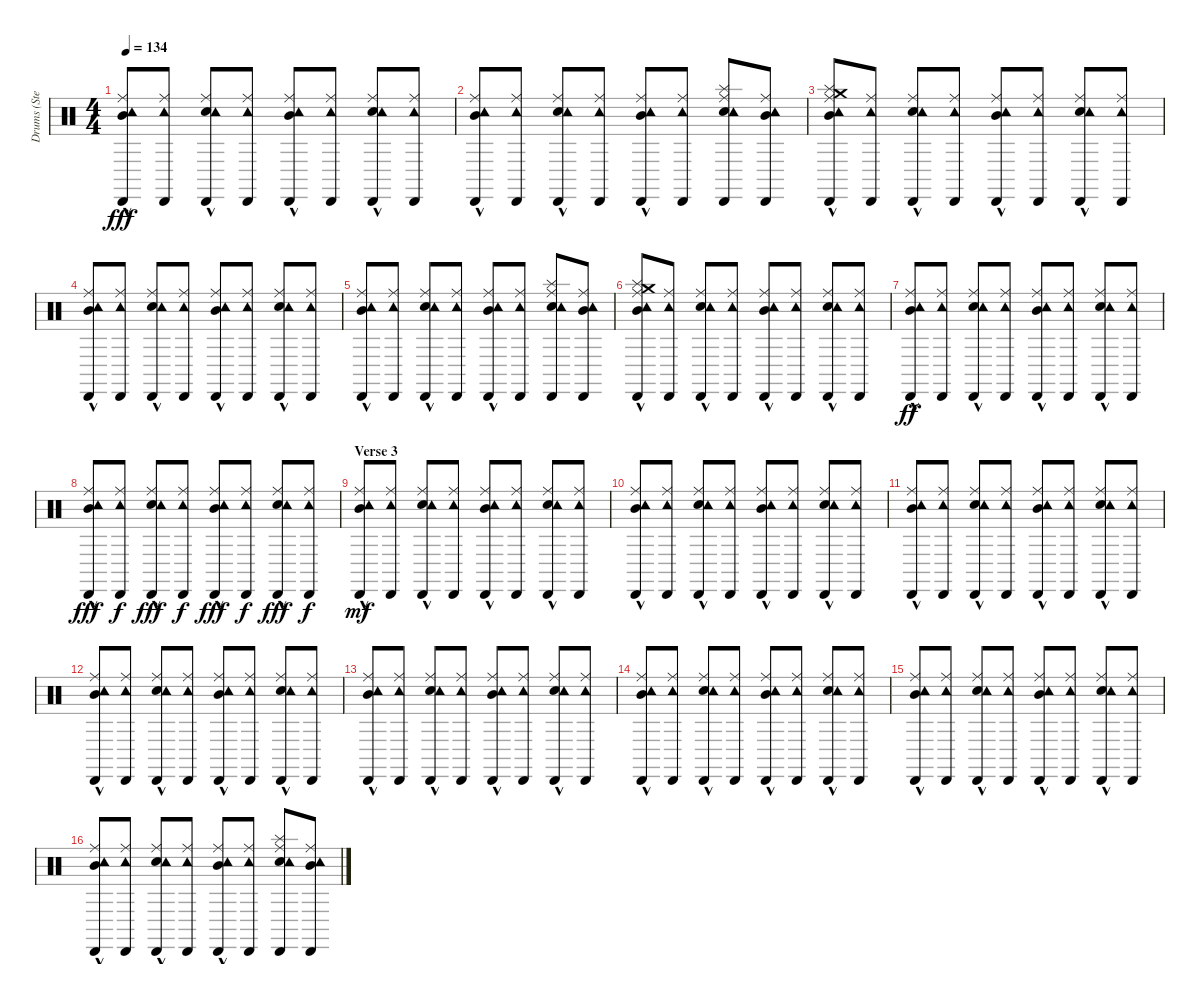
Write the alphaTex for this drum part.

\track ("Drums (Steven)" "Drums (Ste") {instrument percussion}
\staff {score}
\articulation defaults
\ts (4 4)
\tempo 134
\clef neutral
\ks c
("Mid Tom (hit)"{hac} "Ride (middle)" "Tambourine (hit)" "Cabasa (hit)").8{dy fff} ("Ride (middle)" "Tambourine (hit)" "Cabasa (hit)").8 ("Electric Snare (hit)"{hac} "Ride (middle)" "Tambourine (hit)" "Cabasa (hit)").8 ("Ride (middle)" "Tambourine (hit)" "Cabasa (hit)").8 ("Mid Tom (hit)"{hac} "Ride (middle)" "Tambourine (hit)" "Cabasa (hit)").8 ("Ride (middle)" "Tambourine (hit)" "Cabasa (hit)").8 ("Electric Snare (hit)"{hac} "Ride (middle)" "Tambourine (hit)" "Cabasa (hit)").8 ("Ride (middle)" "Tambourine (hit)" "Cabasa (hit)").8 |
("Mid Tom (hit)"{hac} "Ride (middle)" "Tambourine (hit)" "Cabasa (hit)").8 ("Ride (middle)" "Tambourine (hit)" "Cabasa (hit)").8 ("Electric Snare (hit)"{hac} "Ride (middle)" "Tambourine (hit)" "Cabasa (hit)").8 ("Ride (middle)" "Tambourine (hit)" "Cabasa (hit)").8 ("Mid Tom (hit)"{hac} "Ride (middle)" "Tambourine (hit)" "Cabasa (hit)").8 ("Ride (middle)" "Tambourine (hit)" "Cabasa (hit)").8 ("Electric Snare (hit)" "Splash (hit)" "Ride (middle)" "Tambourine (hit)" "Cabasa (hit)").8 ("Mid Tom (hit)" "Ride (middle)" "Tambourine (hit)" "Cabasa (hit)").8 |
("Mid Tom (hit)"{hac} "Splash (hit)"{hac} "Crash medium (hit)"{hac} "Ride (middle)" "Tambourine (hit)" "Cabasa (hit)").8 ("Ride (middle)" "Tambourine (hit)" "Cabasa (hit)").8 ("Electric Snare (hit)"{hac} "Ride (middle)" "Tambourine (hit)" "Cabasa (hit)").8 ("Ride (middle)" "Tambourine (hit)" "Cabasa (hit)").8 ("Mid Tom (hit)"{hac} "Ride (middle)" "Tambourine (hit)" "Cabasa (hit)").8 ("Ride (middle)" "Tambourine (hit)" "Cabasa (hit)").8 ("Electric Snare (hit)"{hac} "Ride (middle)" "Tambourine (hit)" "Cabasa (hit)").8 ("Ride (middle)" "Tambourine (hit)" "Cabasa (hit)").8 |
("Mid Tom (hit)"{hac} "Ride (middle)" "Tambourine (hit)" "Cabasa (hit)").8 ("Ride (middle)" "Tambourine (hit)" "Cabasa (hit)").8 ("Electric Snare (hit)"{hac} "Ride (middle)" "Tambourine (hit)" "Cabasa (hit)").8 ("Ride (middle)" "Tambourine (hit)" "Cabasa (hit)").8 ("Mid Tom (hit)"{hac} "Ride (middle)" "Tambourine (hit)" "Cabasa (hit)").8 ("Ride (middle)" "Tambourine (hit)" "Cabasa (hit)").8 ("Electric Snare (hit)"{hac} "Ride (middle)" "Tambourine (hit)" "Cabasa (hit)").8 ("Ride (middle)" "Tambourine (hit)" "Cabasa (hit)").8 |
("Mid Tom (hit)"{hac} "Ride (middle)" "Tambourine (hit)" "Cabasa (hit)").8 ("Ride (middle)" "Tambourine (hit)" "Cabasa (hit)").8 ("Electric Snare (hit)"{hac} "Ride (middle)" "Tambourine (hit)" "Cabasa (hit)").8 ("Ride (middle)" "Tambourine (hit)" "Cabasa (hit)").8 ("Mid Tom (hit)"{hac} "Ride (middle)" "Tambourine (hit)" "Cabasa (hit)").8 ("Ride (middle)" "Tambourine (hit)" "Cabasa (hit)").8 ("Electric Snare (hit)" "Splash (hit)" "Ride (middle)" "Tambourine (hit)" "Cabasa (hit)").8 ("Mid Tom (hit)" "Ride (middle)" "Tambourine (hit)" "Cabasa (hit)").8 |
("Mid Tom (hit)"{hac} "Splash (hit)"{hac} "Crash medium (hit)"{hac} "Ride (middle)" "Tambourine (hit)" "Cabasa (hit)").8 ("Ride (middle)" "Tambourine (hit)" "Cabasa (hit)").8 ("Electric Snare (hit)"{hac} "Ride (middle)" "Tambourine (hit)" "Cabasa (hit)").8 ("Ride (middle)" "Tambourine (hit)" "Cabasa (hit)").8 ("Mid Tom (hit)"{hac} "Ride (middle)" "Tambourine (hit)" "Cabasa (hit)").8 ("Ride (middle)" "Tambourine (hit)" "Cabasa (hit)").8 ("Electric Snare (hit)"{hac} "Ride (middle)" "Tambourine (hit)" "Cabasa (hit)").8 ("Ride (middle)" "Tambourine (hit)" "Cabasa (hit)").8 |
("Mid Tom (hit)"{hac} "Ride (middle)" "Tambourine (hit)" "Cabasa (hit)").8{dy ff} ("Ride (middle)" "Tambourine (hit)" "Cabasa (hit)").8 ("Electric Snare (hit)"{hac} "Ride (middle)" "Tambourine (hit)" "Cabasa (hit)").8 ("Ride (middle)" "Tambourine (hit)" "Cabasa (hit)").8 ("Mid Tom (hit)"{hac} "Ride (middle)" "Tambourine (hit)" "Cabasa (hit)").8 ("Ride (middle)" "Tambourine (hit)" "Cabasa (hit)").8 ("Electric Snare (hit)"{hac} "Ride (middle)" "Tambourine (hit)" "Cabasa (hit)").8 ("Ride (middle)" "Tambourine (hit)" "Cabasa (hit)").8 |
("Mid Tom (hit)"{hac} "Ride (middle)" "Tambourine (hit)" "Cabasa (hit)").8{dy fff} ("Ride (middle)" "Tambourine (hit)" "Cabasa (hit)").8{dy f} ("Electric Snare (hit)"{hac} "Ride (middle)" "Tambourine (hit)" "Cabasa (hit)").8{dy fff} ("Ride (middle)" "Tambourine (hit)" "Cabasa (hit)").8{dy f} ("Mid Tom (hit)"{hac} "Ride (middle)" "Tambourine (hit)" "Cabasa (hit)").8{dy fff} ("Ride (middle)" "Tambourine (hit)" "Cabasa (hit)").8{dy f} ("Electric Snare (hit)"{hac} "Ride (middle)" "Tambourine (hit)" "Cabasa (hit)").8{dy fff} ("Ride (middle)" "Tambourine (hit)" "Cabasa (hit)").8{dy f} |
\section ("" "Verse 3")
("Mid Tom (hit)"{hac} "Ride (middle)" "Tambourine (hit)" "Cabasa (hit)").8{dy mf} ("Ride (middle)" "Tambourine (hit)" "Cabasa (hit)").8 ("Electric Snare (hit)"{hac} "Ride (middle)" "Tambourine (hit)" "Cabasa (hit)").8 ("Ride (middle)" "Tambourine (hit)" "Cabasa (hit)").8 ("Mid Tom (hit)"{hac} "Ride (middle)" "Tambourine (hit)" "Cabasa (hit)").8 ("Ride (middle)" "Tambourine (hit)" "Cabasa (hit)").8 ("Electric Snare (hit)"{hac} "Ride (middle)" "Tambourine (hit)" "Cabasa (hit)").8 ("Ride (middle)" "Tambourine (hit)" "Cabasa (hit)").8 |
("Mid Tom (hit)"{hac} "Ride (middle)" "Tambourine (hit)" "Cabasa (hit)").8 ("Ride (middle)" "Tambourine (hit)" "Cabasa (hit)").8 ("Electric Snare (hit)"{hac} "Ride (middle)" "Tambourine (hit)" "Cabasa (hit)").8 ("Ride (middle)" "Tambourine (hit)" "Cabasa (hit)").8 ("Mid Tom (hit)"{hac} "Ride (middle)" "Tambourine (hit)" "Cabasa (hit)").8 ("Ride (middle)" "Tambourine (hit)" "Cabasa (hit)").8 ("Electric Snare (hit)"{hac} "Ride (middle)" "Tambourine (hit)" "Cabasa (hit)").8 ("Ride (middle)" "Tambourine (hit)" "Cabasa (hit)").8 |
("Mid Tom (hit)"{hac} "Ride (middle)" "Tambourine (hit)" "Cabasa (hit)").8 ("Ride (middle)" "Tambourine (hit)" "Cabasa (hit)").8 ("Electric Snare (hit)"{hac} "Ride (middle)" "Tambourine (hit)" "Cabasa (hit)").8 ("Ride (middle)" "Tambourine (hit)" "Cabasa (hit)").8 ("Mid Tom (hit)"{hac} "Ride (middle)" "Tambourine (hit)" "Cabasa (hit)").8 ("Ride (middle)" "Tambourine (hit)" "Cabasa (hit)").8 ("Electric Snare (hit)"{hac} "Ride (middle)" "Tambourine (hit)" "Cabasa (hit)").8 ("Ride (middle)" "Tambourine (hit)" "Cabasa (hit)").8 |
("Mid Tom (hit)"{hac} "Ride (middle)" "Tambourine (hit)" "Cabasa (hit)").8 ("Ride (middle)" "Tambourine (hit)" "Cabasa (hit)").8 ("Electric Snare (hit)"{hac} "Ride (middle)" "Tambourine (hit)" "Cabasa (hit)").8 ("Ride (middle)" "Tambourine (hit)" "Cabasa (hit)").8 ("Mid Tom (hit)"{hac} "Ride (middle)" "Tambourine (hit)" "Cabasa (hit)").8 ("Ride (middle)" "Tambourine (hit)" "Cabasa (hit)").8 ("Electric Snare (hit)"{hac} "Ride (middle)" "Tambourine (hit)" "Cabasa (hit)").8 ("Ride (middle)" "Tambourine (hit)" "Cabasa (hit)").8 |
("Mid Tom (hit)"{hac} "Ride (middle)" "Tambourine (hit)" "Cabasa (hit)").8 ("Ride (middle)" "Tambourine (hit)" "Cabasa (hit)").8 ("Electric Snare (hit)"{hac} "Ride (middle)" "Tambourine (hit)" "Cabasa (hit)").8 ("Ride (middle)" "Tambourine (hit)" "Cabasa (hit)").8 ("Mid Tom (hit)"{hac} "Ride (middle)" "Tambourine (hit)" "Cabasa (hit)").8 ("Ride (middle)" "Tambourine (hit)" "Cabasa (hit)").8 ("Electric Snare (hit)"{hac} "Ride (middle)" "Tambourine (hit)" "Cabasa (hit)").8 ("Ride (middle)" "Tambourine (hit)" "Cabasa (hit)").8 |
("Mid Tom (hit)"{hac} "Ride (middle)" "Tambourine (hit)" "Cabasa (hit)").8 ("Ride (middle)" "Tambourine (hit)" "Cabasa (hit)").8 ("Electric Snare (hit)"{hac} "Ride (middle)" "Tambourine (hit)" "Cabasa (hit)").8 ("Ride (middle)" "Tambourine (hit)" "Cabasa (hit)").8 ("Mid Tom (hit)"{hac} "Ride (middle)" "Tambourine (hit)" "Cabasa (hit)").8 ("Ride (middle)" "Tambourine (hit)" "Cabasa (hit)").8 ("Electric Snare (hit)"{hac} "Ride (middle)" "Tambourine (hit)" "Cabasa (hit)").8 ("Ride (middle)" "Tambourine (hit)" "Cabasa (hit)").8 |
("Mid Tom (hit)"{hac} "Ride (middle)" "Tambourine (hit)" "Cabasa (hit)").8 ("Ride (middle)" "Tambourine (hit)" "Cabasa (hit)").8 ("Electric Snare (hit)"{hac} "Ride (middle)" "Tambourine (hit)" "Cabasa (hit)").8 ("Ride (middle)" "Tambourine (hit)" "Cabasa (hit)").8 ("Mid Tom (hit)"{hac} "Ride (middle)" "Tambourine (hit)" "Cabasa (hit)").8 ("Ride (middle)" "Tambourine (hit)" "Cabasa (hit)").8 ("Electric Snare (hit)"{hac} "Ride (middle)" "Tambourine (hit)" "Cabasa (hit)").8 ("Ride (middle)" "Tambourine (hit)" "Cabasa (hit)").8 |
("Mid Tom (hit)"{hac} "Ride (middle)" "Tambourine (hit)" "Cabasa (hit)").8 ("Ride (middle)" "Tambourine (hit)" "Cabasa (hit)").8 ("Electric Snare (hit)"{hac} "Ride (middle)" "Tambourine (hit)" "Cabasa (hit)").8 ("Ride (middle)" "Tambourine (hit)" "Cabasa (hit)").8 ("Mid Tom (hit)"{hac} "Ride (middle)" "Tambourine (hit)" "Cabasa (hit)").8 ("Ride (middle)" "Tambourine (hit)" "Cabasa (hit)").8 ("Electric Snare (hit)" "Splash (hit)" "Ride (middle)" "Tambourine (hit)" "Cabasa (hit)").8 ("Mid Tom (hit)" "Ride (middle)" "Tambourine (hit)" "Cabasa (hit)").8
